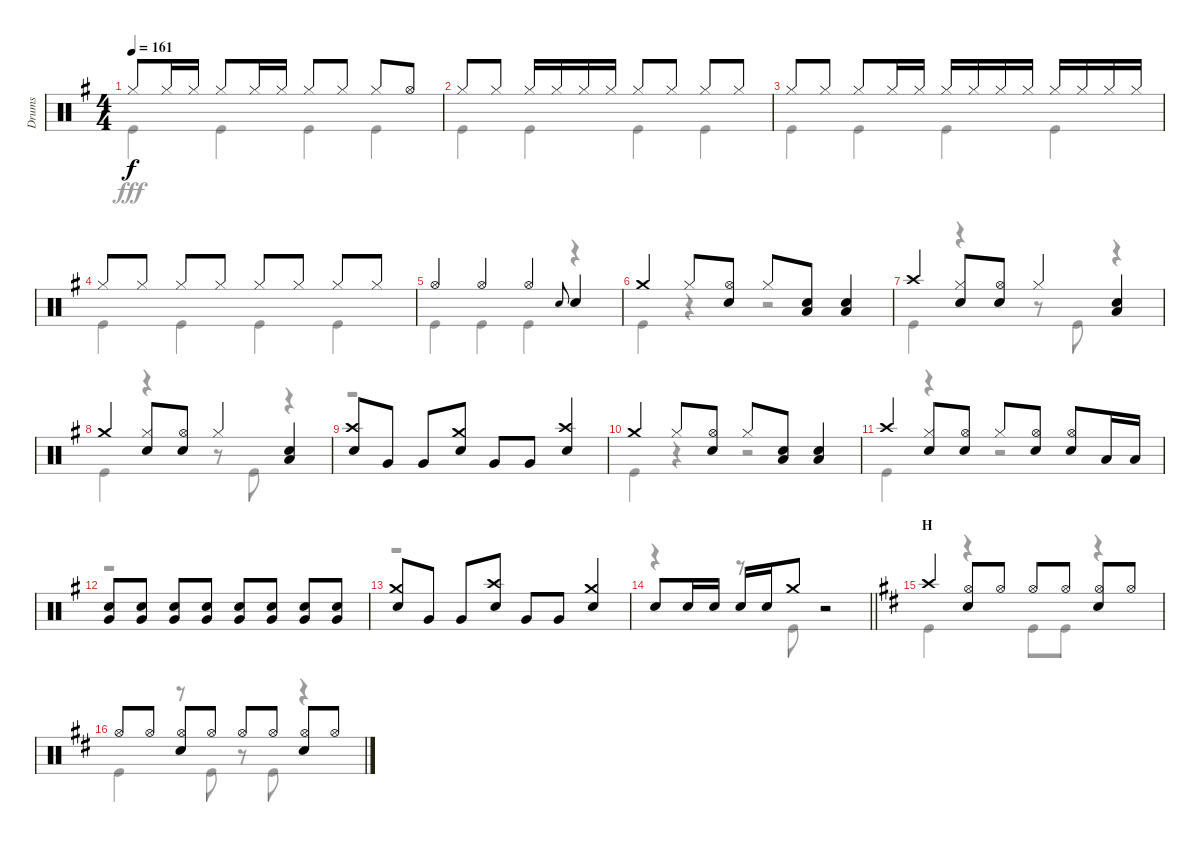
\track ("Drums" "Drums") {instrument percussion}
\staff {score}
\articulation defaults
\voice
\ts (4 4)
\tempo 161
\clef neutral
\ks g "Hi-Hat (closed)".8{dy f} "Hi-Hat (closed)".16 "Hi-Hat (closed)".16 "Hi-Hat (closed)".8 "Hi-Hat (closed)".16 "Hi-Hat (closed)".16 "Hi-Hat (closed)".8 "Hi-Hat (closed)".8 "Hi-Hat (closed)".8 "Hi-Hat (open)".8
|
"Hi-Hat (closed)".8 "Hi-Hat (closed)".8 "Hi-Hat (closed)".16 "Hi-Hat (closed)".16 "Hi-Hat (closed)".16 "Hi-Hat (closed)".16 "Hi-Hat (closed)".8 "Hi-Hat (closed)".8 "Hi-Hat (closed)".8 "Hi-Hat (closed)".8 |
"Hi-Hat (closed)".8 "Hi-Hat (closed)".8 "Hi-Hat (closed)".8 "Hi-Hat (closed)".16 "Hi-Hat (closed)".16 "Hi-Hat (closed)".16 "Hi-Hat (closed)".16 "Hi-Hat (closed)".16 "Hi-Hat (closed)".16 "Hi-Hat (closed)".16 "Hi-Hat (closed)".16 "Hi-Hat (closed)".16 "Hi-Hat (closed)".16 |
"Hi-Hat (closed)".8 "Hi-Hat (closed)".8 "Hi-Hat (closed)".8 "Hi-Hat (closed)".8 "Hi-Hat (closed)".8 "Hi-Hat (closed)".8 "Hi-Hat (closed)".8 "Hi-Hat (closed)".8 |
"Hi-Hat (open)".4 "Hi-Hat (open)".4 "Hi-Hat (open)".4 "Snare (hit) 2".8{gr onbeat} "Snare (hit) 2".4 |
"Crash medium (hit)".4 "Hi-Hat (closed)".8 ("Hi-Hat (open)" "Snare (hit) 2").8 "Hi-Hat (closed)".8 ("Snare (hit) 2" "Low Tom (hit)").8 ("Snare (hit) 2" "Low Tom (hit)").4 |
"Crash high (hit)".4 ("Hi-Hat (closed)" "Snare (hit) 2").8 ("Hi-Hat (open)" "Snare (hit) 2").8 "Hi-Hat (closed)".4 ("Snare (hit) 2" "Low Tom (hit)").4 |
"Crash medium (hit)".4 ("Hi-Hat (closed)" "Snare (hit) 2").8 ("Hi-Hat (open)" "Snare (hit) 2").8 "Hi-Hat (closed)".4 ("Snare (hit) 2" "Low Tom (hit)").4 |
("Crash high (hit)" "Snare (hit) 2").8 "Very Low Tom (hit)".8 "Very Low Tom (hit)".8 ("Crash medium (hit)" "Snare (hit) 2").8 "Very Low Tom (hit)".8 "Very Low Tom (hit)".8 ("Crash high (hit)" "Snare (hit) 2").4 |
"Crash medium (hit)".4 "Hi-Hat (closed)".8 ("Hi-Hat (open)" "Snare (hit) 2").8 "Hi-Hat (closed)".8 ("Snare (hit) 2" "Low Tom (hit)").8 ("Snare (hit) 2" "Low Tom (hit)").4 |
"Crash high (hit)".4 ("Hi-Hat (closed)" "Snare (hit) 2").8 ("Hi-Hat (open)" "Snare (hit) 2").8 "Hi-Hat (closed)".8 ("Hi-Hat (open)" "Snare (hit) 2").8 ("Hi-Hat (open)" "Snare (hit) 2").8 "Low Tom (hit)".16 "Low Tom (hit)".16 |
("Snare (hit) 2" "Very Low Tom (hit)").8 ("Snare (hit) 2" "Very Low Tom (hit)").8 ("Snare (hit) 2" "Very Low Tom (hit)").8 ("Snare (hit) 2" "Very Low Tom (hit)").8 ("Snare (hit) 2" "Very Low Tom (hit)").8 ("Snare (hit) 2" "Very Low Tom (hit)").8 ("Snare (hit) 2" "Very Low Tom (hit)").8 ("Snare (hit) 2" "Very Low Tom (hit)").8 |
("Crash medium (hit)" "Snare (hit) 2").8 "Very Low Tom (hit)".8 "Very Low Tom (hit)".8 ("Crash high (hit)" "Snare (hit) 2").8 "Very Low Tom (hit)".8 "Very Low Tom (hit)".8 ("Crash medium (hit)" "Snare (hit) 2").4 |
\barLineRight lightlight "Snare (hit) 2".8 "Snare (hit) 2".16 "Snare (hit) 2".16 "Snare (hit) 2".16 "Snare (hit) 2".16 "Crash medium (hit)".8
r.2 |
\section ("" "H")
\ks d "Crash high (hit)".4
("Hi-Hat (open)" "Snare (hit) 2").8 "Hi-Hat (open)".8 "Hi-Hat (open)".8 "Hi-Hat (open)".8 ("Hi-Hat (open)" "Snare (hit) 2").8 "Hi-Hat (open)".8 |
"Hi-Hat (open)".8 "Hi-Hat (open)".8 ("Hi-Hat (open)" "Snare (hit) 2").8 "Hi-Hat (open)".8 "Hi-Hat (open)".8 "Hi-Hat (open)".8 ("Hi-Hat (open)" "Snare (hit) 2").8 "Hi-Hat (open)".8
\voice
\clef neutral
\ottava regular
\simile none
\ks g "Kick (hit)".4{dy fff} "Kick (hit)".4 "Kick (hit)".4 "Kick (hit)".4
|
"Kick (hit)".4 "Kick (hit)".4 "Kick (hit)".4 "Kick (hit)".4 |
"Kick (hit)".4 "Kick (hit)".4 "Kick (hit)".4 "Kick (hit)".4 |
"Kick (hit)".4 "Kick (hit)".4 "Kick (hit)".4 "Kick (hit)".4 |
"Kick (hit)".4 "Kick (hit)".4 "Kick (hit)".4 r.4 |
"Kick (hit)".4 r.4 r.2 |
"Kick (hit)".4 r.4 r.8 "Kick (hit)".8 r.4 |
"Kick (hit)".4 r.4 r.8 "Kick (hit)".8 r.4 |
r.1 |
"Kick (hit)".4 r.4 r.2 |
"Kick (hit)".4 r.4 r.2 |
r.1 |
r.1 |
\barLineRight lightlight
r.4 r.8 "Kick (hit)".8 r.2 |
\ks d "Kick (hit)".4
r.4 "Kick (hit)".8 "Kick (hit)".8 r.4 |
"Kick (hit)".4 r.8 "Kick (hit)".8 r.8 "Kick (hit)".8 r.4
